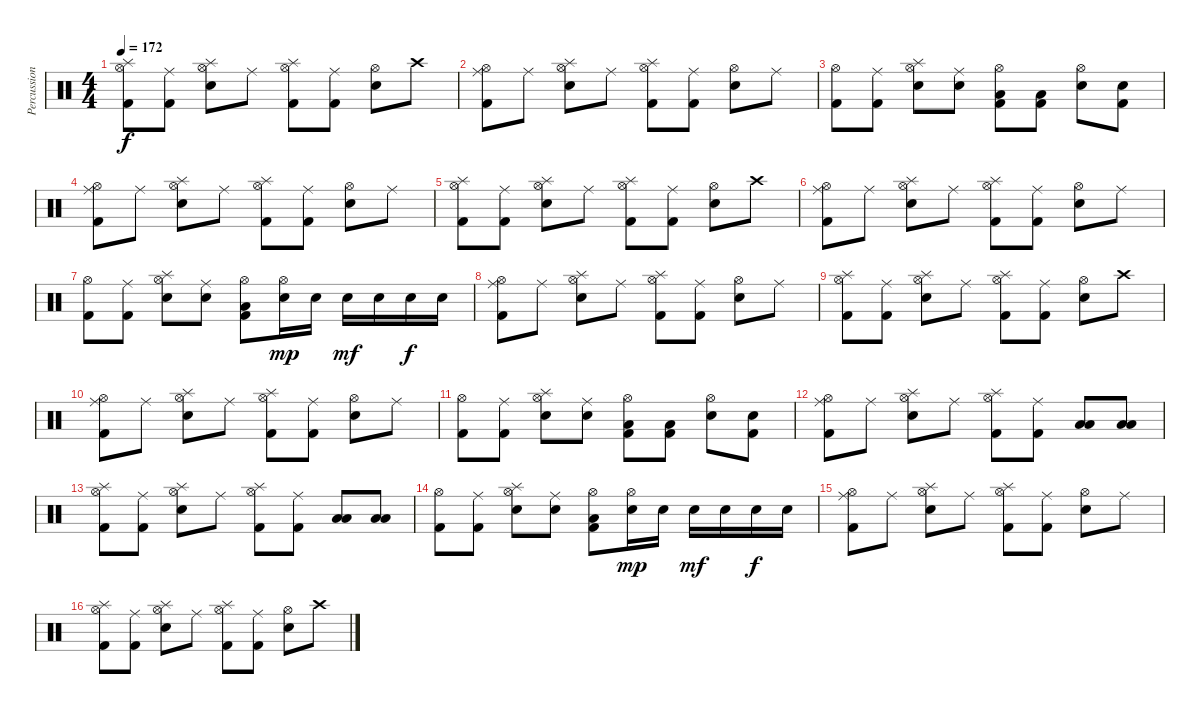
\track ("Percussion" "Percussion") {instrument percussion}
\staff {score}
\articulation defaults
\ts (4 4)
\tempo 172
\clef neutral
\ks c
("Hi-Hat (open)" "Splash (hit)" "Kick (hit) 2").8{dy f} ("Ride (middle)" "Kick (hit) 2").8 ("Hi-Hat (open)" "Splash (hit)" "Electric Snare (hit)").8 "Ride (middle)".8 ("Hi-Hat (open)" "Splash (hit)" "Kick (hit) 2").8 ("Ride (middle)" "Kick (hit) 2").8 ("Hi-Hat (open)" "Electric Snare (hit)").8 "Crash high (hit)".8 |
("Hi-Hat (open)" "Ride (middle)" "Kick (hit) 2").8 "Ride (middle)".8 ("Hi-Hat (open)" "Splash (hit)" "Electric Snare (hit)").8 "Ride (middle)".8 ("Hi-Hat (open)" "Splash (hit)" "Kick (hit) 2").8 ("Ride (middle)" "Kick (hit) 2").8 ("Hi-Hat (open)" "Electric Snare (hit)").8 "Ride (middle)".8 |
("Hi-Hat (open)" "Kick (hit) 2").8 ("Ride (middle)" "Kick (hit) 2").8 ("Hi-Hat (open)" "Splash (hit)" "Electric Snare (hit)").8 ("Ride (middle)" "Electric Snare (hit)").8 ("Hi-Hat (open)" "Kick (hit) 2" "Low Floor Tom (hit)").8 ("Kick (hit) 2" "Low Floor Tom (hit)").8 ("Hi-Hat (open)" "Snare (hit) 2").8 ("Electric Snare (hit)" "Kick (hit) 2").8 |
("Hi-Hat (open)" "Ride (middle)" "Kick (hit) 2").8 "Ride (middle)".8 ("Hi-Hat (open)" "Splash (hit)" "Electric Snare (hit)").8 "Ride (middle)".8 ("Hi-Hat (open)" "Splash (hit)" "Kick (hit) 2").8 ("Ride (middle)" "Kick (hit) 2").8 ("Hi-Hat (open)" "Electric Snare (hit)").8 "Ride (middle)".8 |
("Hi-Hat (open)" "Splash (hit)" "Kick (hit) 2").8 ("Ride (middle)" "Kick (hit) 2").8 ("Hi-Hat (open)" "Splash (hit)" "Electric Snare (hit)").8 "Ride (middle)".8 ("Hi-Hat (open)" "Splash (hit)" "Kick (hit) 2").8 ("Ride (middle)" "Kick (hit) 2").8 ("Hi-Hat (open)" "Electric Snare (hit)").8 "Crash high (hit)".8 |
("Hi-Hat (open)" "Ride (middle)" "Kick (hit) 2").8 "Ride (middle)".8 ("Hi-Hat (open)" "Splash (hit)" "Electric Snare (hit)").8 "Ride (middle)".8 ("Hi-Hat (open)" "Splash (hit)" "Kick (hit) 2").8 ("Ride (middle)" "Kick (hit) 2").8 ("Hi-Hat (open)" "Electric Snare (hit)").8 "Ride (middle)".8 |
("Hi-Hat (open)" "Kick (hit) 2").8 ("Ride (middle)" "Kick (hit) 2").8 ("Hi-Hat (open)" "Splash (hit)" "Electric Snare (hit)").8 ("Ride (middle)" "Electric Snare (hit)").8 ("Hi-Hat (open)" "Kick (hit) 2" "Low Floor Tom (hit)").8 ("Hi-Hat (open)" "Electric Snare (hit)").16{dy mp} "Electric Snare (hit)".16 "Electric Snare (hit)".16{dy mf} "Electric Snare (hit)".16 "Electric Snare (hit)".16{dy f} "Electric Snare (hit)".16 |
("Hi-Hat (open)" "Ride (middle)" "Kick (hit) 2").8 "Ride (middle)".8 ("Hi-Hat (open)" "Splash (hit)" "Electric Snare (hit)").8 "Ride (middle)".8 ("Hi-Hat (open)" "Splash (hit)" "Kick (hit) 2").8 ("Ride (middle)" "Kick (hit) 2").8 ("Hi-Hat (open)" "Electric Snare (hit)").8 "Ride (middle)".8 |
("Hi-Hat (open)" "Splash (hit)" "Kick (hit) 2").8 ("Ride (middle)" "Kick (hit) 2").8 ("Hi-Hat (open)" "Splash (hit)" "Electric Snare (hit)").8 "Ride (middle)".8 ("Hi-Hat (open)" "Splash (hit)" "Kick (hit) 2").8 ("Ride (middle)" "Kick (hit) 2").8 ("Hi-Hat (open)" "Electric Snare (hit)").8 "Crash high (hit)".8 |
("Hi-Hat (open)" "Ride (middle)" "Kick (hit) 2").8 "Ride (middle)".8 ("Hi-Hat (open)" "Splash (hit)" "Electric Snare (hit)").8 "Ride (middle)".8 ("Hi-Hat (open)" "Splash (hit)" "Kick (hit) 2").8 ("Ride (middle)" "Kick (hit) 2").8 ("Hi-Hat (open)" "Electric Snare (hit)").8 "Ride (middle)".8 |
("Hi-Hat (open)" "Kick (hit) 2").8 ("Ride (middle)" "Kick (hit) 2").8 ("Hi-Hat (open)" "Splash (hit)" "Electric Snare (hit)").8 ("Ride (middle)" "Electric Snare (hit)").8 ("Hi-Hat (open)" "Kick (hit) 2" "Low Floor Tom (hit)").8 ("Kick (hit) 2" "Low Floor Tom (hit)").8 ("Hi-Hat (open)" "Snare (hit) 2").8 ("Electric Snare (hit)" "Kick (hit) 2").8 |
("Hi-Hat (open)" "Ride (middle)" "Kick (hit) 2").8 "Ride (middle)".8 ("Hi-Hat (open)" "Splash (hit)" "Electric Snare (hit)").8 "Ride (middle)".8 ("Hi-Hat (open)" "Splash (hit)" "Kick (hit) 2").8 ("Ride (middle)" "Kick (hit) 2").8 ("Low Floor Tom (hit)" "Low Tom (hit)").8 ("Low Floor Tom (hit)" "Low Tom (hit)").8 |
("Hi-Hat (open)" "Splash (hit)" "Kick (hit) 2").8 ("Ride (middle)" "Kick (hit) 2").8 ("Hi-Hat (open)" "Splash (hit)" "Electric Snare (hit)").8 "Ride (middle)".8 ("Hi-Hat (open)" "Splash (hit)" "Kick (hit) 2").8 ("Ride (middle)" "Kick (hit) 2").8 ("Low Floor Tom (hit)" "Low Tom (hit)").8 ("Low Floor Tom (hit)" "Low Tom (hit)").8 |
("Hi-Hat (open)" "Kick (hit) 2").8 ("Ride (middle)" "Kick (hit) 2").8 ("Hi-Hat (open)" "Splash (hit)" "Electric Snare (hit)").8 ("Ride (middle)" "Electric Snare (hit)").8 ("Hi-Hat (open)" "Kick (hit) 2" "Low Floor Tom (hit)").8 ("Hi-Hat (open)" "Electric Snare (hit)").16{dy mp} "Electric Snare (hit)".16 "Electric Snare (hit)".16{dy mf} "Electric Snare (hit)".16 "Electric Snare (hit)".16{dy f} "Electric Snare (hit)".16 |
("Hi-Hat (open)" "Ride (middle)" "Kick (hit) 2").8 "Ride (middle)".8 ("Hi-Hat (open)" "Splash (hit)" "Electric Snare (hit)").8 "Ride (middle)".8 ("Hi-Hat (open)" "Splash (hit)" "Kick (hit) 2").8 ("Ride (middle)" "Kick (hit) 2").8 ("Hi-Hat (open)" "Electric Snare (hit)").8 "Ride (middle)".8 |
("Hi-Hat (open)" "Splash (hit)" "Kick (hit) 2").8 ("Ride (middle)" "Kick (hit) 2").8 ("Hi-Hat (open)" "Splash (hit)" "Electric Snare (hit)").8 "Ride (middle)".8 ("Hi-Hat (open)" "Splash (hit)" "Kick (hit) 2").8 ("Ride (middle)" "Kick (hit) 2").8 ("Hi-Hat (open)" "Electric Snare (hit)").8 "Crash high (hit)".8
